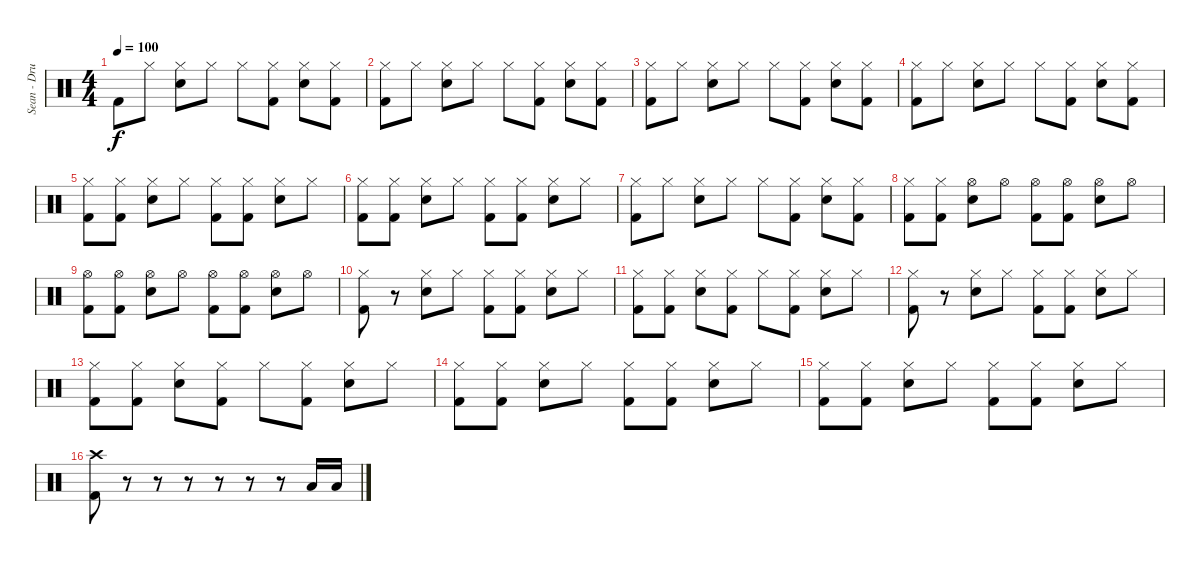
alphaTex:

\track ("Sean - Drums" "Sean - Dru") {instrument percussion}
\staff {score}
\articulation defaults
\ts (4 4)
\tempo 100
\clef neutral
\ks c "Kick (hit) 2".8{dy f} "Hi-Hat (closed)".8
("Hi-Hat (closed)" "Electric Snare (hit)").8 "Hi-Hat (closed)".8 "Hi-Hat (closed)".8 ("Hi-Hat (closed)" "Kick (hit) 2").8 ("Hi-Hat (closed)" "Electric Snare (hit)").8 ("Hi-Hat (closed)" "Kick (hit) 2").8 |
("Hi-Hat (closed)" "Kick (hit) 2").8 "Hi-Hat (closed)".8 ("Hi-Hat (closed)" "Electric Snare (hit)").8 "Hi-Hat (closed)".8 "Hi-Hat (closed)".8 ("Hi-Hat (closed)" "Kick (hit) 2").8 ("Hi-Hat (closed)" "Electric Snare (hit)").8 ("Hi-Hat (closed)" "Kick (hit) 2").8 |
("Hi-Hat (closed)" "Kick (hit) 2").8 "Hi-Hat (closed)".8 ("Hi-Hat (closed)" "Electric Snare (hit)").8 "Hi-Hat (closed)".8 "Hi-Hat (closed)".8 ("Hi-Hat (closed)" "Kick (hit) 2").8 ("Hi-Hat (closed)" "Electric Snare (hit)").8 ("Hi-Hat (closed)" "Kick (hit) 2").8 |
("Hi-Hat (closed)" "Kick (hit) 2").8 "Hi-Hat (closed)".8 ("Hi-Hat (closed)" "Electric Snare (hit)").8 "Hi-Hat (closed)".8 "Hi-Hat (closed)".8 ("Hi-Hat (closed)" "Kick (hit) 2").8 ("Hi-Hat (closed)" "Electric Snare (hit)").8 ("Hi-Hat (closed)" "Kick (hit) 2").8 |
("Hi-Hat (closed)" "Kick (hit) 2").8 ("Hi-Hat (closed)" "Kick (hit) 2").8 ("Hi-Hat (closed)" "Electric Snare (hit)").8 "Hi-Hat (closed)".8 ("Hi-Hat (closed)" "Kick (hit) 2").8 ("Hi-Hat (closed)" "Kick (hit) 2").8 ("Hi-Hat (closed)" "Electric Snare (hit)").8 "Hi-Hat (closed)".8 |
("Hi-Hat (closed)" "Kick (hit) 2").8 ("Hi-Hat (closed)" "Kick (hit) 2").8 ("Hi-Hat (closed)" "Electric Snare (hit)").8 "Hi-Hat (closed)".8 ("Hi-Hat (closed)" "Kick (hit) 2").8 ("Hi-Hat (closed)" "Kick (hit) 2").8 ("Hi-Hat (closed)" "Electric Snare (hit)").8 "Hi-Hat (closed)".8 |
("Hi-Hat (closed)" "Kick (hit) 2").8 "Hi-Hat (closed)".8 ("Hi-Hat (closed)" "Electric Snare (hit)").8 "Hi-Hat (closed)".8 "Hi-Hat (closed)".8 ("Hi-Hat (closed)" "Kick (hit) 2").8 ("Hi-Hat (closed)" "Electric Snare (hit)").8 ("Hi-Hat (closed)" "Kick (hit) 2").8 |
("Hi-Hat (closed)" "Kick (hit) 2").8 ("Hi-Hat (closed)" "Kick (hit) 2").8 ("Hi-Hat (open)" "Electric Snare (hit)").8 "Hi-Hat (open)".8 ("Hi-Hat (open)" "Kick (hit) 2").8 ("Hi-Hat (open)" "Kick (hit) 2").8 ("Hi-Hat (open)" "Electric Snare (hit)").8 "Hi-Hat (open)".8 |
("Hi-Hat (open)" "Kick (hit) 2").8 ("Hi-Hat (open)" "Kick (hit) 2").8 ("Hi-Hat (open)" "Electric Snare (hit)").8 "Hi-Hat (open)".8 ("Hi-Hat (open)" "Kick (hit) 2").8 ("Hi-Hat (open)" "Kick (hit) 2").8 ("Hi-Hat (open)" "Electric Snare (hit)").8 "Hi-Hat (open)".8 |
("Hi-Hat (closed)" "Kick (hit) 2").8 r.8 ("Hi-Hat (closed)" "Electric Snare (hit)").8 "Hi-Hat (closed)".8 ("Hi-Hat (closed)" "Kick (hit) 2").8 ("Hi-Hat (closed)" "Kick (hit) 2").8 ("Hi-Hat (closed)" "Electric Snare (hit)").8 "Hi-Hat (closed)".8 |
("Hi-Hat (closed)" "Kick (hit) 2").8 ("Hi-Hat (closed)" "Kick (hit) 2").8 ("Hi-Hat (closed)" "Electric Snare (hit)").8 ("Hi-Hat (closed)" "Kick (hit) 2").8 "Hi-Hat (closed)".8 ("Hi-Hat (closed)" "Kick (hit) 2").8 ("Hi-Hat (closed)" "Electric Snare (hit)").8 "Hi-Hat (closed)".8 |
("Hi-Hat (closed)" "Kick (hit) 2").8 r.8 ("Hi-Hat (closed)" "Electric Snare (hit)").8 "Hi-Hat (closed)".8 ("Hi-Hat (closed)" "Kick (hit) 2").8 ("Hi-Hat (closed)" "Kick (hit) 2").8 ("Hi-Hat (closed)" "Electric Snare (hit)").8 "Hi-Hat (closed)".8 |
("Hi-Hat (closed)" "Kick (hit) 2").8 ("Hi-Hat (closed)" "Kick (hit) 2").8 ("Hi-Hat (closed)" "Electric Snare (hit)").8 ("Hi-Hat (closed)" "Kick (hit) 2").8 "Hi-Hat (closed)".8 ("Hi-Hat (closed)" "Kick (hit) 2").8 ("Hi-Hat (closed)" "Electric Snare (hit)").8 "Hi-Hat (closed)".8 |
("Hi-Hat (closed)" "Kick (hit) 2").8 ("Hi-Hat (closed)" "Kick (hit) 2").8 ("Hi-Hat (closed)" "Electric Snare (hit)").8 "Hi-Hat (closed)".8 ("Hi-Hat (closed)" "Kick (hit) 2").8 ("Hi-Hat (closed)" "Kick (hit) 2").8 ("Hi-Hat (closed)" "Electric Snare (hit)").8 "Hi-Hat (closed)".8 |
("Hi-Hat (closed)" "Kick (hit) 2").8 ("Hi-Hat (closed)" "Kick (hit) 2").8 ("Hi-Hat (closed)" "Electric Snare (hit)").8 "Hi-Hat (closed)".8 ("Hi-Hat (closed)" "Kick (hit) 2").8 ("Hi-Hat (closed)" "Kick (hit) 2").8 ("Hi-Hat (closed)" "Electric Snare (hit)").8 "Hi-Hat (closed)".8 |
("Crash high (hit)" "Kick (hit) 2").8 r.8 r.8 r.8 r.8 r.8 r.8 "Low Tom (hit)".16 "Low Tom (hit)".16
